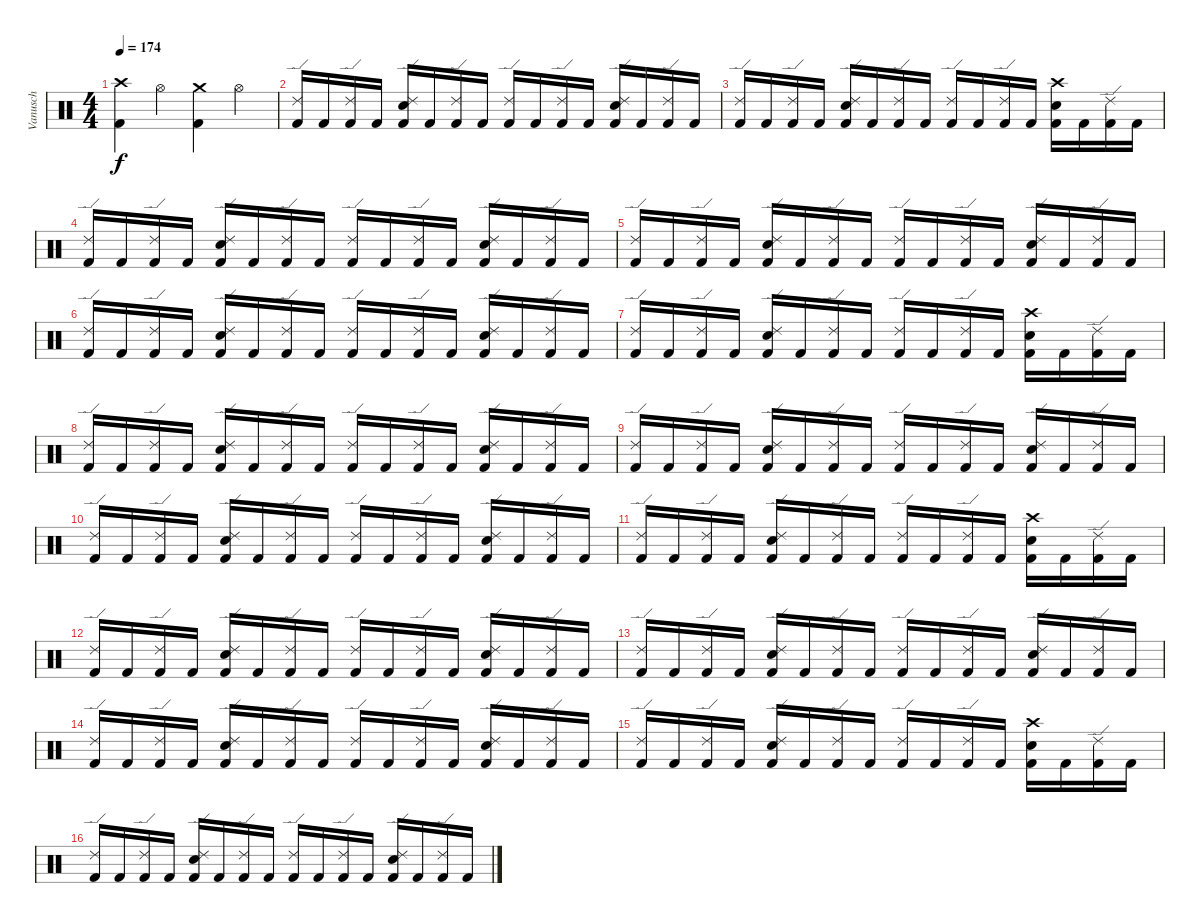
\track ("Vanusch" "Vanusch") {instrument percussion}
\staff {score}
\articulation defaults
\ts (4 4)
\tempo 174
\clef neutral
\ks c
("Crash high (hit)" "Kick (hit) 2").4{dy f} "Hi-Hat (open)".4 ("Crash medium (hit)" "Kick (hit) 2").4 "Hi-Hat (open)".4 |
("Ride (edge) 2" "Kick (hit) 2").16 "Kick (hit) 2".16 ("Ride (edge) 2" "Kick (hit) 2").16 "Kick (hit) 2".16 ("Ride (edge) 2" "Snare (hit) 2" "Kick (hit) 2").16 "Kick (hit) 2".16 ("Ride (edge) 2" "Kick (hit) 2").16 "Kick (hit) 2".16 ("Ride (edge) 2" "Kick (hit) 2").16 "Kick (hit) 2".16 ("Ride (edge) 2" "Kick (hit) 2").16 "Kick (hit) 2".16 ("Ride (edge) 2" "Snare (hit) 2" "Kick (hit) 2").16 "Kick (hit) 2".16 ("Ride (edge) 2" "Kick (hit) 2").16 "Kick (hit) 2".16 |
("Ride (edge) 2" "Kick (hit) 2").16 "Kick (hit) 2".16 ("Ride (edge) 2" "Kick (hit) 2").16 "Kick (hit) 2".16 ("Ride (edge) 2" "Snare (hit) 2" "Kick (hit) 2").16 "Kick (hit) 2".16 ("Ride (edge) 2" "Kick (hit) 2").16 "Kick (hit) 2".16 ("Ride (edge) 2" "Kick (hit) 2").16 "Kick (hit) 2".16 ("Ride (edge) 2" "Kick (hit) 2").16 "Kick (hit) 2".16 ("Crash high (hit)" "Snare (hit) 2" "Kick (hit) 2").16 "Kick (hit) 2".16 ("Ride (edge) 2" "Kick (hit) 2").16 "Kick (hit) 2".16 |
("Ride (edge) 2" "Kick (hit) 2").16 "Kick (hit) 2".16 ("Ride (edge) 2" "Kick (hit) 2").16 "Kick (hit) 2".16 ("Ride (edge) 2" "Snare (hit) 2" "Kick (hit) 2").16 "Kick (hit) 2".16 ("Ride (edge) 2" "Kick (hit) 2").16 "Kick (hit) 2".16 ("Ride (edge) 2" "Kick (hit) 2").16 "Kick (hit) 2".16 ("Ride (edge) 2" "Kick (hit) 2").16 "Kick (hit) 2".16 ("Ride (edge) 2" "Snare (hit) 2" "Kick (hit) 2").16 "Kick (hit) 2".16 ("Ride (edge) 2" "Kick (hit) 2").16 "Kick (hit) 2".16 |
("Ride (edge) 2" "Kick (hit) 2").16 "Kick (hit) 2".16 ("Ride (edge) 2" "Kick (hit) 2").16 "Kick (hit) 2".16 ("Ride (edge) 2" "Snare (hit) 2" "Kick (hit) 2").16 "Kick (hit) 2".16 ("Ride (edge) 2" "Kick (hit) 2").16 "Kick (hit) 2".16 ("Ride (edge) 2" "Kick (hit) 2").16 "Kick (hit) 2".16 ("Ride (edge) 2" "Kick (hit) 2").16 "Kick (hit) 2".16 ("Ride (edge) 2" "Snare (hit) 2" "Kick (hit) 2").16 "Kick (hit) 2".16 ("Ride (edge) 2" "Kick (hit) 2").16 "Kick (hit) 2".16 |
("Ride (edge) 2" "Kick (hit) 2").16 "Kick (hit) 2".16 ("Ride (edge) 2" "Kick (hit) 2").16 "Kick (hit) 2".16 ("Ride (edge) 2" "Snare (hit) 2" "Kick (hit) 2").16 "Kick (hit) 2".16 ("Ride (edge) 2" "Kick (hit) 2").16 "Kick (hit) 2".16 ("Ride (edge) 2" "Kick (hit) 2").16 "Kick (hit) 2".16 ("Ride (edge) 2" "Kick (hit) 2").16 "Kick (hit) 2".16 ("Ride (edge) 2" "Snare (hit) 2" "Kick (hit) 2").16 "Kick (hit) 2".16 ("Ride (edge) 2" "Kick (hit) 2").16 "Kick (hit) 2".16 |
("Ride (edge) 2" "Kick (hit) 2").16 "Kick (hit) 2".16 ("Ride (edge) 2" "Kick (hit) 2").16 "Kick (hit) 2".16 ("Ride (edge) 2" "Snare (hit) 2" "Kick (hit) 2").16 "Kick (hit) 2".16 ("Ride (edge) 2" "Kick (hit) 2").16 "Kick (hit) 2".16 ("Ride (edge) 2" "Kick (hit) 2").16 "Kick (hit) 2".16 ("Ride (edge) 2" "Kick (hit) 2").16 "Kick (hit) 2".16 ("Crash high (hit)" "Snare (hit) 2" "Kick (hit) 2").16 "Kick (hit) 2".16 ("Ride (edge) 2" "Kick (hit) 2").16 "Kick (hit) 2".16 |
("Ride (edge) 2" "Kick (hit) 2").16 "Kick (hit) 2".16 ("Ride (edge) 2" "Kick (hit) 2").16 "Kick (hit) 2".16 ("Ride (edge) 2" "Snare (hit) 2" "Kick (hit) 2").16 "Kick (hit) 2".16 ("Ride (edge) 2" "Kick (hit) 2").16 "Kick (hit) 2".16 ("Ride (edge) 2" "Kick (hit) 2").16 "Kick (hit) 2".16 ("Ride (edge) 2" "Kick (hit) 2").16 "Kick (hit) 2".16 ("Ride (edge) 2" "Snare (hit) 2" "Kick (hit) 2").16 "Kick (hit) 2".16 ("Ride (edge) 2" "Kick (hit) 2").16 "Kick (hit) 2".16 |
("Ride (edge) 2" "Kick (hit) 2").16 "Kick (hit) 2".16 ("Ride (edge) 2" "Kick (hit) 2").16 "Kick (hit) 2".16 ("Ride (edge) 2" "Snare (hit) 2" "Kick (hit) 2").16 "Kick (hit) 2".16 ("Ride (edge) 2" "Kick (hit) 2").16 "Kick (hit) 2".16 ("Ride (edge) 2" "Kick (hit) 2").16 "Kick (hit) 2".16 ("Ride (edge) 2" "Kick (hit) 2").16 "Kick (hit) 2".16 ("Ride (edge) 2" "Snare (hit) 2" "Kick (hit) 2").16 "Kick (hit) 2".16 ("Ride (edge) 2" "Kick (hit) 2").16 "Kick (hit) 2".16 |
("Ride (edge) 2" "Kick (hit) 2").16 "Kick (hit) 2".16 ("Ride (edge) 2" "Kick (hit) 2").16 "Kick (hit) 2".16 ("Ride (edge) 2" "Snare (hit) 2" "Kick (hit) 2").16 "Kick (hit) 2".16 ("Ride (edge) 2" "Kick (hit) 2").16 "Kick (hit) 2".16 ("Ride (edge) 2" "Kick (hit) 2").16 "Kick (hit) 2".16 ("Ride (edge) 2" "Kick (hit) 2").16 "Kick (hit) 2".16 ("Ride (edge) 2" "Snare (hit) 2" "Kick (hit) 2").16 "Kick (hit) 2".16 ("Ride (edge) 2" "Kick (hit) 2").16 "Kick (hit) 2".16 |
("Ride (edge) 2" "Kick (hit) 2").16 "Kick (hit) 2".16 ("Ride (edge) 2" "Kick (hit) 2").16 "Kick (hit) 2".16 ("Ride (edge) 2" "Snare (hit) 2" "Kick (hit) 2").16 "Kick (hit) 2".16 ("Ride (edge) 2" "Kick (hit) 2").16 "Kick (hit) 2".16 ("Ride (edge) 2" "Kick (hit) 2").16 "Kick (hit) 2".16 ("Ride (edge) 2" "Kick (hit) 2").16 "Kick (hit) 2".16 ("Crash high (hit)" "Snare (hit) 2" "Kick (hit) 2").16 "Kick (hit) 2".16 ("Ride (edge) 2" "Kick (hit) 2").16 "Kick (hit) 2".16 |
("Ride (edge) 2" "Kick (hit) 2").16 "Kick (hit) 2".16 ("Ride (edge) 2" "Kick (hit) 2").16 "Kick (hit) 2".16 ("Ride (edge) 2" "Snare (hit) 2" "Kick (hit) 2").16 "Kick (hit) 2".16 ("Ride (edge) 2" "Kick (hit) 2").16 "Kick (hit) 2".16 ("Ride (edge) 2" "Kick (hit) 2").16 "Kick (hit) 2".16 ("Ride (edge) 2" "Kick (hit) 2").16 "Kick (hit) 2".16 ("Ride (edge) 2" "Snare (hit) 2" "Kick (hit) 2").16 "Kick (hit) 2".16 ("Ride (edge) 2" "Kick (hit) 2").16 "Kick (hit) 2".16 |
("Ride (edge) 2" "Kick (hit) 2").16 "Kick (hit) 2".16 ("Ride (edge) 2" "Kick (hit) 2").16 "Kick (hit) 2".16 ("Ride (edge) 2" "Snare (hit) 2" "Kick (hit) 2").16 "Kick (hit) 2".16 ("Ride (edge) 2" "Kick (hit) 2").16 "Kick (hit) 2".16 ("Ride (edge) 2" "Kick (hit) 2").16 "Kick (hit) 2".16 ("Ride (edge) 2" "Kick (hit) 2").16 "Kick (hit) 2".16 ("Ride (edge) 2" "Snare (hit) 2" "Kick (hit) 2").16 "Kick (hit) 2".16 ("Ride (edge) 2" "Kick (hit) 2").16 "Kick (hit) 2".16 |
("Ride (edge) 2" "Kick (hit) 2").16 "Kick (hit) 2".16 ("Ride (edge) 2" "Kick (hit) 2").16 "Kick (hit) 2".16 ("Ride (edge) 2" "Snare (hit) 2" "Kick (hit) 2").16 "Kick (hit) 2".16 ("Ride (edge) 2" "Kick (hit) 2").16 "Kick (hit) 2".16 ("Ride (edge) 2" "Kick (hit) 2").16 "Kick (hit) 2".16 ("Ride (edge) 2" "Kick (hit) 2").16 "Kick (hit) 2".16 ("Ride (edge) 2" "Snare (hit) 2" "Kick (hit) 2").16 "Kick (hit) 2".16 ("Ride (edge) 2" "Kick (hit) 2").16 "Kick (hit) 2".16 |
("Ride (edge) 2" "Kick (hit) 2").16 "Kick (hit) 2".16 ("Ride (edge) 2" "Kick (hit) 2").16 "Kick (hit) 2".16 ("Ride (edge) 2" "Snare (hit) 2" "Kick (hit) 2").16 "Kick (hit) 2".16 ("Ride (edge) 2" "Kick (hit) 2").16 "Kick (hit) 2".16 ("Ride (edge) 2" "Kick (hit) 2").16 "Kick (hit) 2".16 ("Ride (edge) 2" "Kick (hit) 2").16 "Kick (hit) 2".16 ("Crash high (hit)" "Snare (hit) 2" "Kick (hit) 2").16 "Kick (hit) 2".16 ("Ride (edge) 2" "Kick (hit) 2").16 "Kick (hit) 2".16 |
("Ride (edge) 2" "Kick (hit) 2").16 "Kick (hit) 2".16 ("Ride (edge) 2" "Kick (hit) 2").16 "Kick (hit) 2".16 ("Ride (edge) 2" "Snare (hit) 2" "Kick (hit) 2").16 "Kick (hit) 2".16 ("Ride (edge) 2" "Kick (hit) 2").16 "Kick (hit) 2".16 ("Ride (edge) 2" "Kick (hit) 2").16 "Kick (hit) 2".16 ("Ride (edge) 2" "Kick (hit) 2").16 "Kick (hit) 2".16 ("Ride (edge) 2" "Snare (hit) 2" "Kick (hit) 2").16 "Kick (hit) 2".16 ("Ride (edge) 2" "Kick (hit) 2").16 "Kick (hit) 2".16
